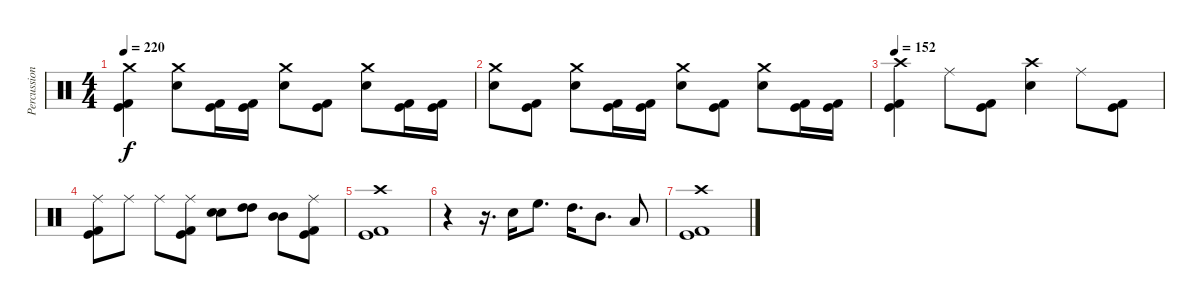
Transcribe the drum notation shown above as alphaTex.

\track ("Percussion" "Percussion") {instrument percussion}
\staff {score}
\articulation defaults
\ts (4 4)
\tempo 220
\clef neutral
\ks c
("Crash medium (hit)" "Kick (hit)" "Kick (hit) 2").4{dy f} ("Crash medium (hit)" "Electric Snare (hit)").8 ("Kick (hit)" "Kick (hit) 2").16 ("Kick (hit)" "Kick (hit) 2").16 ("Crash medium (hit)" "Electric Snare (hit)").8 ("Kick (hit)" "Kick (hit) 2").8 ("Crash medium (hit)" "Electric Snare (hit)").8 ("Kick (hit)" "Kick (hit) 2").16 ("Kick (hit)" "Kick (hit) 2").16 |
("Crash medium (hit)" "Electric Snare (hit)").8 ("Kick (hit)" "Kick (hit) 2").8 ("Crash medium (hit)" "Electric Snare (hit)").8 ("Kick (hit)" "Kick (hit) 2").16 ("Kick (hit)" "Kick (hit) 2").16 ("Crash medium (hit)" "Electric Snare (hit)").8 ("Kick (hit)" "Kick (hit) 2").8 ("Crash medium (hit)" "Electric Snare (hit)").8 ("Kick (hit)" "Kick (hit) 2").16 ("Kick (hit)" "Kick (hit) 2").16 |
\tempo 152
("Crash high (hit)" "Kick (hit)" "Kick (hit) 2").4 "Ride (middle)".8 ("Kick (hit)" "Kick (hit) 2").8 ("Crash high (hit)" "Electric Snare (hit)").4 "Ride (middle)".8 ("Kick (hit)" "Kick (hit) 2").8 |
("Ride (middle)" "Kick (hit)" "Kick (hit) 2").8 "Ride (middle)".8 "Ride (middle)".8 ("Ride (middle)" "Kick (hit)" "Kick (hit) 2").8 ("Electric Snare (hit)" "Electric Snare (hit)").8 ("High Tom (hit)" "High Tom (hit)").8 ("Mid Tom (hit)" "Mid Tom (hit)").8 ("Ride (middle)" "Kick (hit)" "Kick (hit) 2").8 |
("Crash high (hit)" "Kick (hit)" "Kick (hit) 2").1 |
r.4 r.16{d} "Electric Snare (hit)".16 "High Floor Tom (hit)".8{d} "High Tom (hit)".16{d} "Mid Tom (hit)".8{d} "Low Tom (hit)".8 |
("Crash high (hit)" "Kick (hit)" "Kick (hit) 2").1
